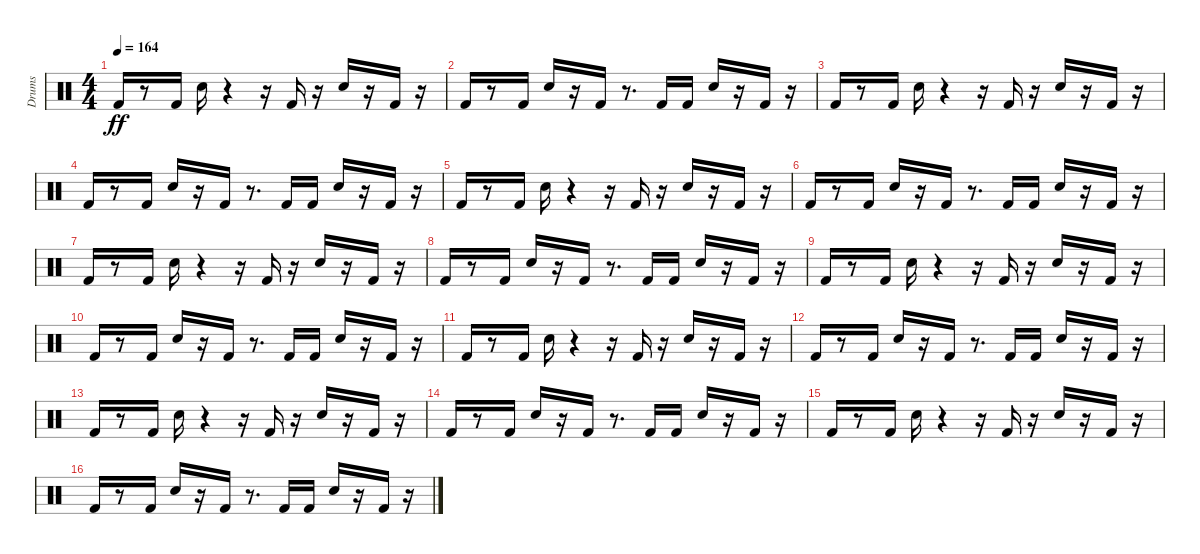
\track ("Drums               " "Drums     ") {instrument percussion}
\staff {score}
\articulation defaults
\ts (4 4)
\tempo 164
\clef neutral
\ks c "Kick (hit) 2".16{dy ff}
r.8 "Kick (hit) 2".16 "Electric Snare (hit)".16 r.4 r.16 "Kick (hit) 2".16 r.16 "Electric Snare (hit)".16 r.16 "Kick (hit) 2".16 r.16 |
"Kick (hit) 2".16 r.8 "Kick (hit) 2".16 "Electric Snare (hit)".16 r.16 "Kick (hit) 2".16 r.8{d} "Kick (hit) 2".16 "Kick (hit) 2".16 "Electric Snare (hit)".16 r.16 "Kick (hit) 2".16 r.16 |
"Kick (hit) 2".16 r.8 "Kick (hit) 2".16 "Electric Snare (hit)".16 r.4 r.16 "Kick (hit) 2".16 r.16 "Electric Snare (hit)".16 r.16 "Kick (hit) 2".16 r.16 |
"Kick (hit) 2".16 r.8 "Kick (hit) 2".16 "Electric Snare (hit)".16 r.16 "Kick (hit) 2".16 r.8{d} "Kick (hit) 2".16 "Kick (hit) 2".16 "Electric Snare (hit)".16 r.16 "Kick (hit) 2".16 r.16 |
"Kick (hit) 2".16 r.8 "Kick (hit) 2".16 "Electric Snare (hit)".16 r.4 r.16 "Kick (hit) 2".16 r.16 "Electric Snare (hit)".16 r.16 "Kick (hit) 2".16 r.16 |
"Kick (hit) 2".16 r.8 "Kick (hit) 2".16 "Electric Snare (hit)".16 r.16 "Kick (hit) 2".16 r.8{d} "Kick (hit) 2".16 "Kick (hit) 2".16 "Electric Snare (hit)".16 r.16 "Kick (hit) 2".16 r.16 |
"Kick (hit) 2".16 r.8 "Kick (hit) 2".16 "Electric Snare (hit)".16 r.4 r.16 "Kick (hit) 2".16 r.16 "Electric Snare (hit)".16 r.16 "Kick (hit) 2".16 r.16 |
"Kick (hit) 2".16 r.8 "Kick (hit) 2".16 "Electric Snare (hit)".16 r.16 "Kick (hit) 2".16 r.8{d} "Kick (hit) 2".16 "Kick (hit) 2".16 "Electric Snare (hit)".16 r.16 "Kick (hit) 2".16 r.16 |
"Kick (hit) 2".16 r.8 "Kick (hit) 2".16 "Electric Snare (hit)".16 r.4 r.16 "Kick (hit) 2".16 r.16 "Electric Snare (hit)".16 r.16 "Kick (hit) 2".16 r.16 |
"Kick (hit) 2".16 r.8 "Kick (hit) 2".16 "Electric Snare (hit)".16 r.16 "Kick (hit) 2".16 r.8{d} "Kick (hit) 2".16 "Kick (hit) 2".16 "Electric Snare (hit)".16 r.16 "Kick (hit) 2".16 r.16 |
"Kick (hit) 2".16 r.8 "Kick (hit) 2".16 "Electric Snare (hit)".16 r.4 r.16 "Kick (hit) 2".16 r.16 "Electric Snare (hit)".16 r.16 "Kick (hit) 2".16 r.16 |
"Kick (hit) 2".16 r.8 "Kick (hit) 2".16 "Electric Snare (hit)".16 r.16 "Kick (hit) 2".16 r.8{d} "Kick (hit) 2".16 "Kick (hit) 2".16 "Electric Snare (hit)".16 r.16 "Kick (hit) 2".16 r.16 |
"Kick (hit) 2".16 r.8 "Kick (hit) 2".16 "Electric Snare (hit)".16 r.4 r.16 "Kick (hit) 2".16 r.16 "Electric Snare (hit)".16 r.16 "Kick (hit) 2".16 r.16 |
"Kick (hit) 2".16 r.8 "Kick (hit) 2".16 "Electric Snare (hit)".16 r.16 "Kick (hit) 2".16 r.8{d} "Kick (hit) 2".16 "Kick (hit) 2".16 "Electric Snare (hit)".16 r.16 "Kick (hit) 2".16 r.16 |
"Kick (hit) 2".16 r.8 "Kick (hit) 2".16 "Electric Snare (hit)".16 r.4 r.16 "Kick (hit) 2".16 r.16 "Electric Snare (hit)".16 r.16 "Kick (hit) 2".16 r.16 |
"Kick (hit) 2".16 r.8 "Kick (hit) 2".16 "Electric Snare (hit)".16 r.16 "Kick (hit) 2".16 r.8{d} "Kick (hit) 2".16 "Kick (hit) 2".16 "Electric Snare (hit)".16 r.16 "Kick (hit) 2".16 r.16
